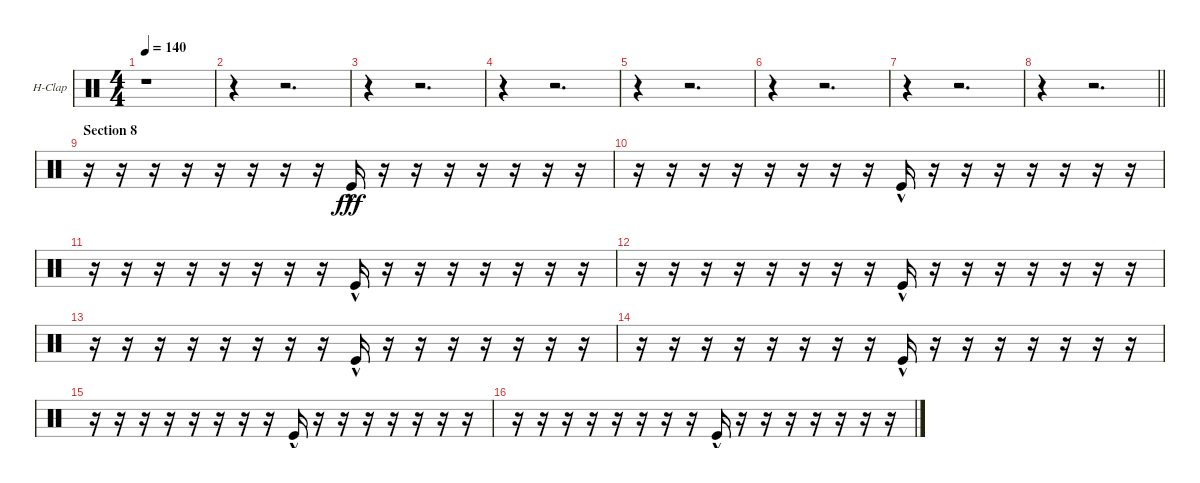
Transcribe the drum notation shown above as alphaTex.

\bracketExtendMode groupsimilarinstruments
\firstSystemTrackNameOrientation horizontal
\otherSystemsTrackNameOrientation horizontal
\track ("Hand Clap" "H-Clap") {instrument percussion}
\staff {score}
\articulation defaults
\ts (4 4)
\tempo 140
\clef neutral
\ks c
r.1{dy fff} |
r.4 r.2{d} |
r.4 r.2{d} |
r.4 r.2{d} |
r.4 r.2{d} |
r.4 r.2{d} |
r.4 r.2{d} |
\barLineRight lightlight
r.4 r.2{d} |
\section ("" "Section 8")
r.16 r.16 r.16 r.16 r.16 r.16 r.16 r.16 "Kick (hit)"{hac}.16 r.16 r.16 r.16 r.16 r.16 r.16 r.16 |
r.16 r.16 r.16 r.16 r.16 r.16 r.16 r.16 "Kick (hit)"{hac}.16 r.16 r.16 r.16 r.16 r.16 r.16 r.16 |
r.16 r.16 r.16 r.16 r.16 r.16 r.16 r.16 "Kick (hit)"{hac}.16 r.16 r.16 r.16 r.16 r.16 r.16 r.16 |
r.16 r.16 r.16 r.16 r.16 r.16 r.16 r.16 "Kick (hit)"{hac}.16 r.16 r.16 r.16 r.16 r.16 r.16 r.16 |
r.16 r.16 r.16 r.16 r.16 r.16 r.16 r.16 "Kick (hit)"{hac}.16 r.16 r.16 r.16 r.16 r.16 r.16 r.16 |
r.16 r.16 r.16 r.16 r.16 r.16 r.16 r.16 "Kick (hit)"{hac}.16 r.16 r.16 r.16 r.16 r.16 r.16 r.16 |
r.16 r.16 r.16 r.16 r.16 r.16 r.16 r.16 "Kick (hit)"{hac}.16 r.16 r.16 r.16 r.16 r.16 r.16 r.16 |
r.16 r.16 r.16 r.16 r.16 r.16 r.16 r.16 "Kick (hit)"{hac}.16 r.16 r.16 r.16 r.16 r.16 r.16 r.16
